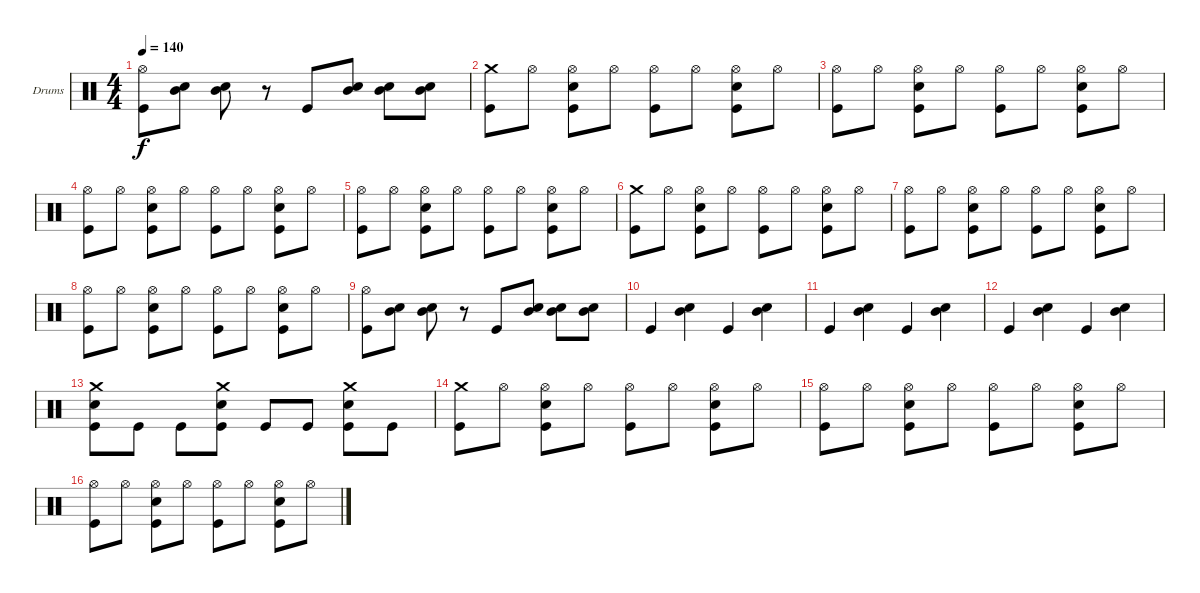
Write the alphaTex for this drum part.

\bracketExtendMode groupsimilarinstruments
\firstSystemTrackNameOrientation horizontal
\otherSystemsTrackNameOrientation horizontal
\track ("Drumkit" "Drums") {instrument percussion}
\staff {score}
\articulation defaults
\ts (4 4)
\tempo 140
\clef neutral
\ks c
("Hi-Hat (open)" "Kick (hit)").8{dy f} ("Mid Tom (hit)" "Snare (hit) 2").8 ("Mid Tom (hit)" "Snare (hit) 2").8 r.8 "Kick (hit)".8 ("Mid Tom (hit)" "Snare (hit) 2").8 ("Mid Tom (hit)" "Snare (hit) 2").8 ("Mid Tom (hit)" "Snare (hit) 2").8 |
("Crash medium (hit)" "Kick (hit)").8 "Hi-Hat (open)".8 ("Hi-Hat (open)" "Snare (hit) 2" "Kick (hit)").8 "Hi-Hat (open)".8 ("Hi-Hat (open)" "Kick (hit)").8 "Hi-Hat (open)".8 ("Hi-Hat (open)" "Snare (hit) 2" "Kick (hit)").8 "Hi-Hat (open)".8 |
("Hi-Hat (open)" "Kick (hit)").8 "Hi-Hat (open)".8 ("Hi-Hat (open)" "Snare (hit) 2" "Kick (hit)").8 "Hi-Hat (open)".8 ("Hi-Hat (open)" "Kick (hit)").8 "Hi-Hat (open)".8 ("Hi-Hat (open)" "Snare (hit) 2" "Kick (hit)").8 "Hi-Hat (open)".8 |
("Hi-Hat (open)" "Kick (hit)").8 "Hi-Hat (open)".8 ("Hi-Hat (open)" "Snare (hit) 2" "Kick (hit)").8 "Hi-Hat (open)".8 ("Hi-Hat (open)" "Kick (hit)").8 "Hi-Hat (open)".8 ("Hi-Hat (open)" "Snare (hit) 2" "Kick (hit)").8 "Hi-Hat (open)".8 |
("Hi-Hat (open)" "Kick (hit)").8 "Hi-Hat (open)".8 ("Hi-Hat (open)" "Snare (hit) 2" "Kick (hit)").8 "Hi-Hat (open)".8 ("Hi-Hat (open)" "Kick (hit)").8 "Hi-Hat (open)".8 ("Hi-Hat (open)" "Snare (hit) 2" "Kick (hit)").8 "Hi-Hat (open)".8 |
("Crash medium (hit)" "Kick (hit)").8 "Hi-Hat (open)".8 ("Hi-Hat (open)" "Snare (hit) 2" "Kick (hit)").8 "Hi-Hat (open)".8 ("Hi-Hat (open)" "Kick (hit)").8 "Hi-Hat (open)".8 ("Hi-Hat (open)" "Snare (hit) 2" "Kick (hit)").8 "Hi-Hat (open)".8 |
("Hi-Hat (open)" "Kick (hit)").8 "Hi-Hat (open)".8 ("Hi-Hat (open)" "Snare (hit) 2" "Kick (hit)").8 "Hi-Hat (open)".8 ("Hi-Hat (open)" "Kick (hit)").8 "Hi-Hat (open)".8 ("Hi-Hat (open)" "Snare (hit) 2" "Kick (hit)").8 "Hi-Hat (open)".8 |
("Hi-Hat (open)" "Kick (hit)").8 "Hi-Hat (open)".8 ("Hi-Hat (open)" "Snare (hit) 2" "Kick (hit)").8 "Hi-Hat (open)".8 ("Hi-Hat (open)" "Kick (hit)").8 "Hi-Hat (open)".8 ("Hi-Hat (open)" "Snare (hit) 2" "Kick (hit)").8 "Hi-Hat (open)".8 |
("Hi-Hat (open)" "Kick (hit)").8 ("Mid Tom (hit)" "Snare (hit) 2").8 ("Mid Tom (hit)" "Snare (hit) 2").8 r.8 "Kick (hit)".8 ("Mid Tom (hit)" "Snare (hit) 2").8 ("Mid Tom (hit)" "Snare (hit) 2").8 ("Mid Tom (hit)" "Snare (hit) 2").8 |
"Kick (hit)".4 ("Mid Tom (hit)" "Snare (hit) 2").4 "Kick (hit)".4 ("Mid Tom (hit)" "Snare (hit) 2").4 |
"Kick (hit)".4 ("Mid Tom (hit)" "Snare (hit) 2").4 "Kick (hit)".4 ("Mid Tom (hit)" "Snare (hit) 2").4 |
"Kick (hit)".4 ("Mid Tom (hit)" "Snare (hit) 2").4 "Kick (hit)".4 ("Mid Tom (hit)" "Snare (hit) 2").4 |
("Crash medium (hit)" "Snare (hit) 2" "Kick (hit)").8 "Kick (hit)".8 "Kick (hit)".8 ("Crash medium (hit)" "Snare (hit) 2" "Kick (hit)").8 "Kick (hit)".8 "Kick (hit)".8 ("Crash medium (hit)" "Snare (hit) 2" "Kick (hit)").8 "Kick (hit)".8 |
("Crash medium (hit)" "Kick (hit)").8 "Hi-Hat (open)".8 ("Hi-Hat (open)" "Snare (hit) 2" "Kick (hit)").8 "Hi-Hat (open)".8 ("Hi-Hat (open)" "Kick (hit)").8 "Hi-Hat (open)".8 ("Hi-Hat (open)" "Snare (hit) 2" "Kick (hit)").8 "Hi-Hat (open)".8 |
("Hi-Hat (open)" "Kick (hit)").8 "Hi-Hat (open)".8 ("Hi-Hat (open)" "Snare (hit) 2" "Kick (hit)").8 "Hi-Hat (open)".8 ("Hi-Hat (open)" "Kick (hit)").8 "Hi-Hat (open)".8 ("Hi-Hat (open)" "Snare (hit) 2" "Kick (hit)").8 "Hi-Hat (open)".8 |
("Hi-Hat (open)" "Kick (hit)").8 "Hi-Hat (open)".8 ("Hi-Hat (open)" "Snare (hit) 2" "Kick (hit)").8 "Hi-Hat (open)".8 ("Hi-Hat (open)" "Kick (hit)").8 "Hi-Hat (open)".8 ("Hi-Hat (open)" "Snare (hit) 2" "Kick (hit)").8 "Hi-Hat (open)".8
